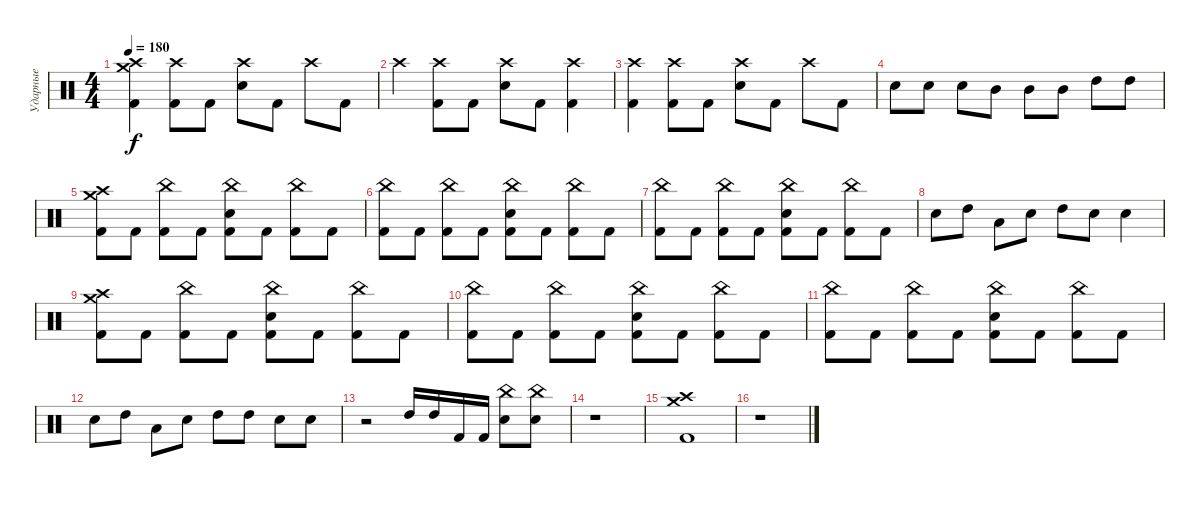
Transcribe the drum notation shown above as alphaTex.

\track ("Ударные" "Ударные") {instrument percussion}
\staff {score}
\articulation defaults
\ts (4 4)
\tempo 180
\clef neutral
\ks c
("Crash high (hit)" "Crash medium (hit)" "Kick (hit) 2").4{dy f} ("Crash high (hit)" "Kick (hit) 2").8 "Kick (hit) 2".8 ("Crash high (hit)" "Electric Snare (hit)").8 "Kick (hit) 2".8 "Crash high (hit)".8 "Kick (hit) 2".8 |
"Crash high (hit)".4 ("Crash high (hit)" "Kick (hit) 2").8 "Kick (hit) 2".8 ("Crash high (hit)" "Electric Snare (hit)").8 "Kick (hit) 2".8 ("Crash high (hit)" "Kick (hit) 2").4 |
("Crash high (hit)" "Kick (hit) 2").4 ("Crash high (hit)" "Kick (hit) 2").8 "Kick (hit) 2".8 ("Crash high (hit)" "Electric Snare (hit)").8 "Kick (hit) 2".8 "Crash high (hit)".8 "Kick (hit) 2".8 |
"Electric Snare (hit)".8 "Electric Snare (hit)".8 "Electric Snare (hit)".8 "Mid Tom (hit)".8 "Mid Tom (hit)".8 "Mid Tom (hit)".8 "High Tom (hit)".8 "High Tom (hit)".8 |
("Crash high (hit)" "Crash medium (hit)" "Kick (hit) 2").8 "Kick (hit) 2".8 ("China (hit)" "Kick (hit) 2").8 "Kick (hit) 2".8 ("China (hit)" "Electric Snare (hit)" "Kick (hit) 2").8 "Kick (hit) 2".8 ("China (hit)" "Kick (hit) 2").8 "Kick (hit) 2".8 |
("China (hit)" "Kick (hit) 2").8 "Kick (hit) 2".8 ("China (hit)" "Kick (hit) 2").8 "Kick (hit) 2".8 ("China (hit)" "Electric Snare (hit)" "Kick (hit) 2").8 "Kick (hit) 2".8 ("China (hit)" "Kick (hit) 2").8 "Kick (hit) 2".8 |
("China (hit)" "Kick (hit) 2").8 "Kick (hit) 2".8 ("China (hit)" "Kick (hit) 2").8 "Kick (hit) 2".8 ("China (hit)" "Electric Snare (hit)" "Kick (hit) 2").8 "Kick (hit) 2".8 ("China (hit)" "Kick (hit) 2").8 "Kick (hit) 2".8 |
"Electric Snare (hit)".8 "High Tom (hit)".8 "Low Tom (hit)".8 "Electric Snare (hit)".8 "High Tom (hit)".8 "Electric Snare (hit)".8 "Electric Snare (hit)".4 |
("Crash high (hit)" "Crash medium (hit)" "Kick (hit) 2").8 "Kick (hit) 2".8 ("China (hit)" "Kick (hit) 2").8 "Kick (hit) 2".8 ("China (hit)" "Electric Snare (hit)" "Kick (hit) 2").8 "Kick (hit) 2".8 ("China (hit)" "Kick (hit) 2").8 "Kick (hit) 2".8 |
("China (hit)" "Kick (hit) 2").8 "Kick (hit) 2".8 ("China (hit)" "Kick (hit) 2").8 "Kick (hit) 2".8 ("China (hit)" "Electric Snare (hit)" "Kick (hit) 2").8 "Kick (hit) 2".8 ("China (hit)" "Kick (hit) 2").8 "Kick (hit) 2".8 |
("China (hit)" "Kick (hit) 2").8 "Kick (hit) 2".8 ("China (hit)" "Kick (hit) 2").8 "Kick (hit) 2".8 ("China (hit)" "Electric Snare (hit)" "Kick (hit) 2").8 "Kick (hit) 2".8 ("China (hit)" "Kick (hit) 2").8 "Kick (hit) 2".8 |
"Electric Snare (hit)".8 "High Tom (hit)".8 "Low Tom (hit)".8 "Electric Snare (hit)".8 "High Tom (hit)".8 "High Tom (hit)".8 "Electric Snare (hit)".8 "Electric Snare (hit)".8 |
r.2 "High Tom (hit)".16 "High Tom (hit)".16 "Kick (hit) 2".16 "Kick (hit) 2".16 ("China (hit)" "Electric Snare (hit)").8 ("China (hit)" "Electric Snare (hit)").8 |
r.1 |
("Crash high (hit)" "Crash medium (hit)" "Kick (hit) 2").1 |
r.1
